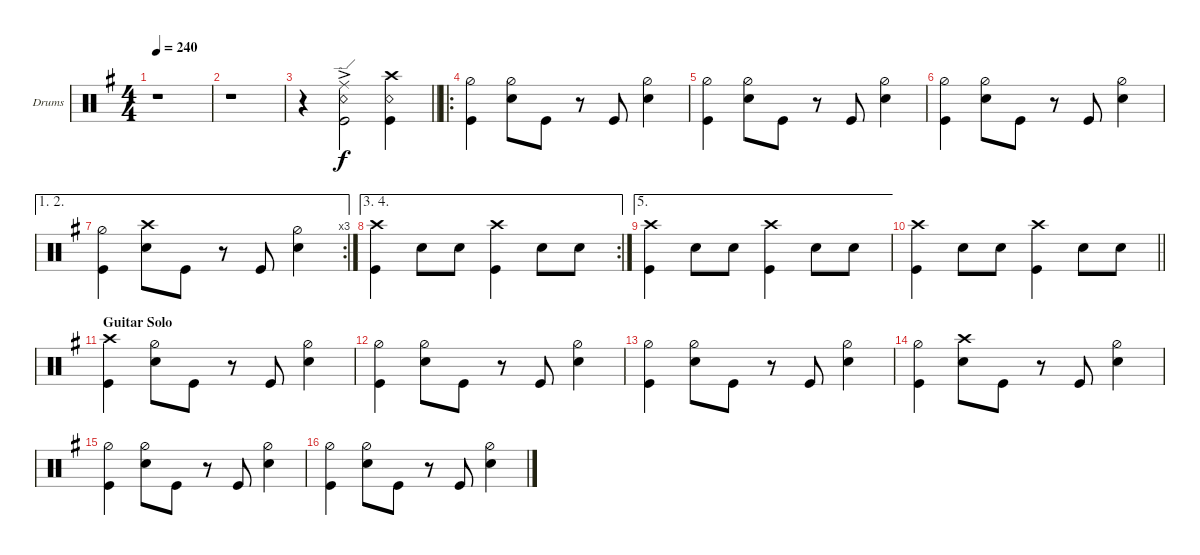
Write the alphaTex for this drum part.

\defaultSystemsLayout 4
\bracketExtendMode groupsimilarinstruments
\firstSystemTrackNameOrientation horizontal
\otherSystemsTrackNameOrientation horizontal
\track ("Drums" "Drums") {instrument percussion}
\staff {score}
\articulation defaults
\ts (4 4)
\tempo 240
\clef neutral
\ks g
r.1{dy f} |
r.1 |
\barLineRight lightlight
r.4 ("Kick (hit)"{ac} "Snare (rim shot)"{ac} "Ride (edge)"{ac}).2 ("Kick (hit)" "Crash high (hit)" "Snare (rim shot)").4 |
\ro
("Kick (hit)" "Hi-Hat (half)").4 ("Snare (hit) 2" "Hi-Hat (half)").8 "Kick (hit)".8 r.8 "Kick (hit)".8 ("Snare (hit) 2" "Hi-Hat (half)").4 |
("Kick (hit)" "Hi-Hat (half)").4 ("Snare (hit) 2" "Hi-Hat (half)").8 "Kick (hit)".8 r.8 "Kick (hit)".8 ("Snare (hit) 2" "Hi-Hat (half)").4 |
("Kick (hit)" "Hi-Hat (half)").4 ("Snare (hit) 2" "Hi-Hat (half)").8 "Kick (hit)".8 r.8 "Kick (hit)".8 ("Snare (hit) 2" "Hi-Hat (half)").4 |
\ae (1 2)
\rc 3
("Kick (hit)" "Hi-Hat (half)").4 ("Snare (hit) 2" "Crash high (hit)").8 "Kick (hit)".8 r.8 "Kick (hit)".8 ("Snare (hit) 2" "Hi-Hat (half)").4 |
\ae (3 4)
\rc 2
("Kick (hit)" "Crash high (hit)").4 "Snare (hit) 2".8 "Snare (hit) 2".8 ("Kick (hit)" "Crash high (hit)").4 "Snare (hit) 2".8 "Snare (hit) 2".8 |
\ae 5
("Kick (hit)" "Crash high (hit)").4 "Snare (hit) 2".8 "Snare (hit) 2".8 ("Kick (hit)" "Crash high (hit)").4 "Snare (hit) 2".8 "Snare (hit) 2".8 |
\barLineRight lightlight
("Kick (hit)" "Crash high (hit)").4 "Snare (hit) 2".8 "Snare (hit) 2".8 ("Kick (hit)" "Crash high (hit)").4 "Snare (hit) 2".8 "Snare (hit) 2".8 |
\section ("" "Guitar Solo")
("Kick (hit)" "Crash high (hit)").4 ("Snare (hit) 2" "Hi-Hat (half)").8 "Kick (hit)".8 r.8 "Kick (hit)".8 ("Snare (hit) 2" "Hi-Hat (half)").4 |
("Kick (hit)" "Hi-Hat (half)").4 ("Snare (hit) 2" "Hi-Hat (half)").8 "Kick (hit)".8 r.8 "Kick (hit)".8 ("Snare (hit) 2" "Hi-Hat (half)").4 |
("Kick (hit)" "Hi-Hat (half)").4 ("Snare (hit) 2" "Hi-Hat (half)").8 "Kick (hit)".8 r.8 "Kick (hit)".8 ("Snare (hit) 2" "Hi-Hat (half)").4 |
("Kick (hit)" "Hi-Hat (half)").4 ("Snare (hit) 2" "Crash high (hit)").8 "Kick (hit)".8 r.8 "Kick (hit)".8 ("Snare (hit) 2" "Hi-Hat (half)").4 |
("Kick (hit)" "Hi-Hat (half)").4 ("Snare (hit) 2" "Hi-Hat (half)").8 "Kick (hit)".8 r.8 "Kick (hit)".8 ("Snare (hit) 2" "Hi-Hat (half)").4 |
("Kick (hit)" "Hi-Hat (half)").4 ("Snare (hit) 2" "Hi-Hat (half)").8 "Kick (hit)".8 r.8 "Kick (hit)".8 ("Snare (hit) 2" "Hi-Hat (half)").4
